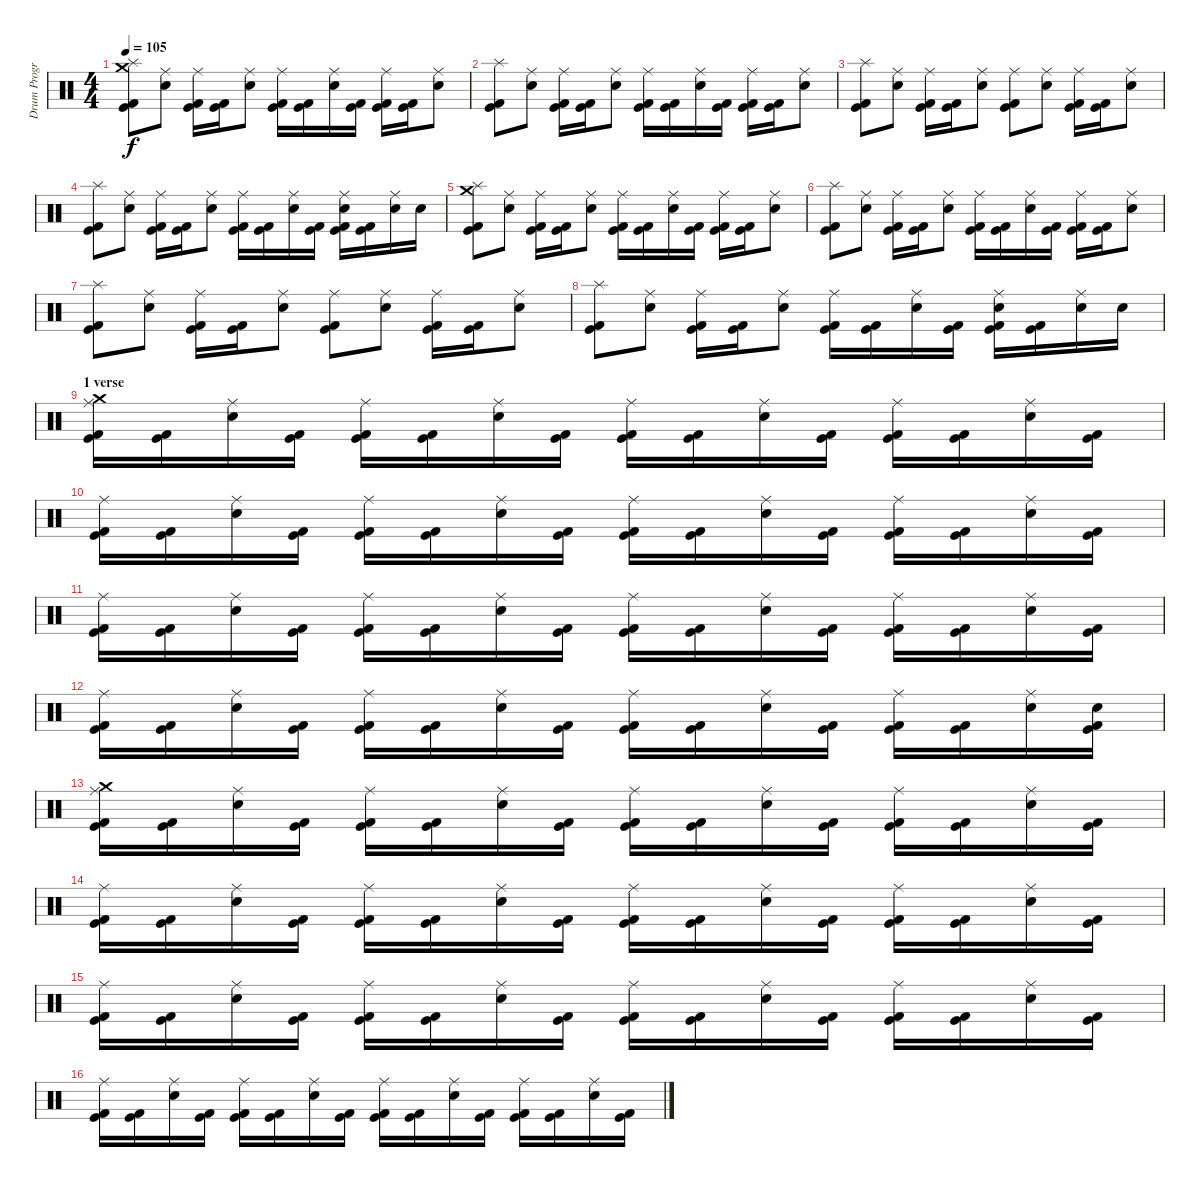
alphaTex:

\track ("Drum Program - BG" "Drum Progr") {instrument percussion}
\staff {score}
\articulation defaults
\ts (4 4)
\tempo 105
\clef neutral
\ks c
("Kick (hit)" "Kick (hit) 2" "Splash (hit)" "Crash medium (hit)").8{dy f} ("Snare (hit) 2" "Ride (middle)").8 ("Kick (hit)" "Kick (hit) 2" "Ride (middle)").16 ("Kick (hit)" "Kick (hit) 2").16 ("Snare (hit) 2" "Ride (middle)").8 ("Kick (hit)" "Kick (hit) 2" "Ride (middle)").16 ("Kick (hit)" "Kick (hit) 2").16 ("Snare (hit) 2" "Ride (middle)").16 ("Kick (hit)" "Kick (hit) 2").16 ("Kick (hit)" "Kick (hit) 2" "Ride (middle)").16 ("Kick (hit)" "Kick (hit) 2").16 ("Snare (hit) 2" "Ride (middle)").8 |
("Kick (hit)" "Kick (hit) 2" "Splash (hit)").8 ("Snare (hit) 2" "Ride (middle)").8 ("Kick (hit)" "Kick (hit) 2" "Ride (middle)").16 ("Kick (hit)" "Kick (hit) 2").16 ("Snare (hit) 2" "Ride (middle)").8 ("Kick (hit)" "Kick (hit) 2" "Ride (middle)").16 ("Kick (hit)" "Kick (hit) 2").16 ("Snare (hit) 2" "Ride (middle)").16 ("Kick (hit)" "Kick (hit) 2").16 ("Kick (hit)" "Kick (hit) 2" "Ride (middle)").16 ("Kick (hit)" "Kick (hit) 2").16 ("Snare (hit) 2" "Ride (middle)").8 |
("Kick (hit)" "Kick (hit) 2" "Splash (hit)").8 ("Snare (hit) 2" "Ride (middle)").8 ("Kick (hit)" "Kick (hit) 2" "Ride (middle)").16 ("Kick (hit)" "Kick (hit) 2").16 ("Snare (hit) 2" "Ride (middle)").8 ("Kick (hit)" "Kick (hit) 2" "Ride (middle)").8 ("Snare (hit) 2" "Ride (middle)").8 ("Kick (hit)" "Kick (hit) 2" "Ride (middle)").16 ("Kick (hit)" "Kick (hit) 2").16 ("Snare (hit) 2" "Ride (middle)").8 |
("Kick (hit)" "Kick (hit) 2" "Splash (hit)").8 ("Snare (hit) 2" "Ride (middle)").8 ("Kick (hit)" "Kick (hit) 2" "Ride (middle)").16 ("Kick (hit)" "Kick (hit) 2").16 ("Snare (hit) 2" "Ride (middle)").8 ("Kick (hit)" "Kick (hit) 2" "Ride (middle)").16 ("Kick (hit)" "Kick (hit) 2").16 ("Electric Snare (hit)" "Ride (middle)").16 ("Kick (hit)" "Kick (hit) 2").16 ("Kick (hit)" "Kick (hit) 2" "Electric Snare (hit)" "Ride (middle)").16 ("Kick (hit)" "Kick (hit) 2").16 ("Electric Snare (hit)" "Ride (middle)").16 "Electric Snare (hit)".16 |
("Kick (hit)" "Kick (hit) 2" "Splash (hit)" "Crash medium (hit)").8 ("Snare (hit) 2" "Ride (middle)").8 ("Kick (hit)" "Kick (hit) 2" "Ride (middle)").16 ("Kick (hit)" "Kick (hit) 2").16 ("Snare (hit) 2" "Ride (middle)").8 ("Kick (hit)" "Kick (hit) 2" "Ride (middle)").16 ("Kick (hit)" "Kick (hit) 2").16 ("Snare (hit) 2" "Ride (middle)").16 ("Kick (hit)" "Kick (hit) 2").16 ("Kick (hit)" "Kick (hit) 2" "Ride (middle)").16 ("Kick (hit)" "Kick (hit) 2").16 ("Snare (hit) 2" "Ride (middle)").8 |
("Kick (hit)" "Kick (hit) 2" "Splash (hit)").8 ("Snare (hit) 2" "Ride (middle)").8 ("Kick (hit)" "Kick (hit) 2" "Ride (middle)").16 ("Kick (hit)" "Kick (hit) 2").16 ("Snare (hit) 2" "Ride (middle)").8 ("Kick (hit)" "Kick (hit) 2" "Ride (middle)").16 ("Kick (hit)" "Kick (hit) 2").16 ("Snare (hit) 2" "Ride (middle)").16 ("Kick (hit)" "Kick (hit) 2").16 ("Kick (hit)" "Kick (hit) 2" "Ride (middle)").16 ("Kick (hit)" "Kick (hit) 2").16 ("Snare (hit) 2" "Ride (middle)").8 |
("Kick (hit)" "Kick (hit) 2" "Splash (hit)").8 ("Snare (hit) 2" "Ride (middle)").8 ("Kick (hit)" "Kick (hit) 2" "Ride (middle)").16 ("Kick (hit)" "Kick (hit) 2").16 ("Snare (hit) 2" "Ride (middle)").8 ("Kick (hit)" "Kick (hit) 2" "Ride (middle)").8 ("Snare (hit) 2" "Ride (middle)").8 ("Kick (hit)" "Kick (hit) 2" "Ride (middle)").16 ("Kick (hit)" "Kick (hit) 2").16 ("Snare (hit) 2" "Ride (middle)").8 |
("Kick (hit)" "Kick (hit) 2" "Splash (hit)").8 ("Snare (hit) 2" "Ride (middle)").8 ("Kick (hit)" "Kick (hit) 2" "Ride (middle)").16 ("Kick (hit)" "Kick (hit) 2").16 ("Snare (hit) 2" "Ride (middle)").8 ("Kick (hit)" "Kick (hit) 2" "Ride (middle)").16 ("Kick (hit)" "Kick (hit) 2").16 ("Electric Snare (hit)" "Ride (middle)").16 ("Kick (hit)" "Kick (hit) 2").16 ("Kick (hit)" "Kick (hit) 2" "Electric Snare (hit)" "Ride (middle)").16 ("Kick (hit)" "Kick (hit) 2").16 ("Electric Snare (hit)" "Ride (middle)").16 "Electric Snare (hit)".16 |
\section ("" "1 verse")
("Kick (hit)" "Kick (hit) 2" "Crash medium (hit)" "Ride (middle)").16 ("Kick (hit)" "Kick (hit) 2").16 ("Snare (hit) 2" "Ride (middle)").16 ("Kick (hit)" "Kick (hit) 2").16 ("Kick (hit)" "Kick (hit) 2" "Ride (middle)").16 ("Kick (hit)" "Kick (hit) 2").16 ("Snare (hit) 2" "Ride (middle)").16 ("Kick (hit)" "Kick (hit) 2").16 ("Kick (hit)" "Kick (hit) 2" "Ride (middle)").16 ("Kick (hit)" "Kick (hit) 2").16 ("Snare (hit) 2" "Ride (middle)").16 ("Kick (hit)" "Kick (hit) 2").16 ("Kick (hit)" "Kick (hit) 2" "Ride (middle)").16 ("Kick (hit)" "Kick (hit) 2").16 ("Snare (hit) 2" "Ride (middle)").16 ("Kick (hit)" "Kick (hit) 2").16 |
("Kick (hit)" "Kick (hit) 2" "Ride (middle)").16 ("Kick (hit)" "Kick (hit) 2").16 ("Snare (hit) 2" "Ride (middle)").16 ("Kick (hit)" "Kick (hit) 2").16 ("Kick (hit)" "Kick (hit) 2" "Ride (middle)").16 ("Kick (hit)" "Kick (hit) 2").16 ("Snare (hit) 2" "Ride (middle)").16 ("Kick (hit)" "Kick (hit) 2").16 ("Kick (hit)" "Kick (hit) 2" "Ride (middle)").16 ("Kick (hit)" "Kick (hit) 2").16 ("Snare (hit) 2" "Ride (middle)").16 ("Kick (hit)" "Kick (hit) 2").16 ("Kick (hit)" "Kick (hit) 2" "Ride (middle)").16 ("Kick (hit)" "Kick (hit) 2").16 ("Snare (hit) 2" "Ride (middle)").16 ("Kick (hit)" "Kick (hit) 2").16 |
("Kick (hit)" "Kick (hit) 2" "Ride (middle)").16 ("Kick (hit)" "Kick (hit) 2").16 ("Snare (hit) 2" "Ride (middle)").16 ("Kick (hit)" "Kick (hit) 2").16 ("Kick (hit)" "Kick (hit) 2" "Ride (middle)").16 ("Kick (hit)" "Kick (hit) 2").16 ("Snare (hit) 2" "Ride (middle)").16 ("Kick (hit)" "Kick (hit) 2").16 ("Kick (hit)" "Kick (hit) 2" "Ride (middle)").16 ("Kick (hit)" "Kick (hit) 2").16 ("Snare (hit) 2" "Ride (middle)").16 ("Kick (hit)" "Kick (hit) 2").16 ("Kick (hit)" "Kick (hit) 2" "Ride (middle)").16 ("Kick (hit)" "Kick (hit) 2").16 ("Snare (hit) 2" "Ride (middle)").16 ("Kick (hit)" "Kick (hit) 2").16 |
("Kick (hit)" "Kick (hit) 2" "Ride (middle)").16 ("Kick (hit)" "Kick (hit) 2").16 ("Snare (hit) 2" "Ride (middle)").16 ("Kick (hit)" "Kick (hit) 2").16 ("Kick (hit)" "Kick (hit) 2" "Ride (middle)").16 ("Kick (hit)" "Kick (hit) 2").16 ("Snare (hit) 2" "Ride (middle)").16 ("Kick (hit)" "Kick (hit) 2").16 ("Kick (hit)" "Kick (hit) 2" "Ride (middle)").16 ("Kick (hit)" "Kick (hit) 2").16 ("Snare (hit) 2" "Ride (middle)").16 ("Kick (hit)" "Kick (hit) 2").16 ("Kick (hit)" "Kick (hit) 2" "Ride (middle)").16 ("Kick (hit)" "Kick (hit) 2").16 ("Snare (hit) 2" "Ride (middle)").16 ("Kick (hit)" "Kick (hit) 2" "Snare (hit) 2").16 |
("Kick (hit)" "Kick (hit) 2" "Crash medium (hit)" "Ride (middle)").16 ("Kick (hit)" "Kick (hit) 2").16 ("Snare (hit) 2" "Ride (middle)").16 ("Kick (hit)" "Kick (hit) 2").16 ("Kick (hit)" "Kick (hit) 2" "Ride (middle)").16 ("Kick (hit)" "Kick (hit) 2").16 ("Snare (hit) 2" "Ride (middle)").16 ("Kick (hit)" "Kick (hit) 2").16 ("Kick (hit)" "Kick (hit) 2" "Ride (middle)").16 ("Kick (hit)" "Kick (hit) 2").16 ("Snare (hit) 2" "Ride (middle)").16 ("Kick (hit)" "Kick (hit) 2").16 ("Kick (hit)" "Kick (hit) 2" "Ride (middle)").16 ("Kick (hit)" "Kick (hit) 2").16 ("Snare (hit) 2" "Ride (middle)").16 ("Kick (hit)" "Kick (hit) 2").16 |
("Kick (hit)" "Kick (hit) 2" "Ride (middle)").16 ("Kick (hit)" "Kick (hit) 2").16 ("Snare (hit) 2" "Ride (middle)").16 ("Kick (hit)" "Kick (hit) 2").16 ("Kick (hit)" "Kick (hit) 2" "Ride (middle)").16 ("Kick (hit)" "Kick (hit) 2").16 ("Snare (hit) 2" "Ride (middle)").16 ("Kick (hit)" "Kick (hit) 2").16 ("Kick (hit)" "Kick (hit) 2" "Ride (middle)").16 ("Kick (hit)" "Kick (hit) 2").16 ("Snare (hit) 2" "Ride (middle)").16 ("Kick (hit)" "Kick (hit) 2").16 ("Kick (hit)" "Kick (hit) 2" "Ride (middle)").16 ("Kick (hit)" "Kick (hit) 2").16 ("Snare (hit) 2" "Ride (middle)").16 ("Kick (hit)" "Kick (hit) 2").16 |
("Kick (hit)" "Kick (hit) 2" "Ride (middle)").16 ("Kick (hit)" "Kick (hit) 2").16 ("Snare (hit) 2" "Ride (middle)").16 ("Kick (hit)" "Kick (hit) 2").16 ("Kick (hit)" "Kick (hit) 2" "Ride (middle)").16 ("Kick (hit)" "Kick (hit) 2").16 ("Snare (hit) 2" "Ride (middle)").16 ("Kick (hit)" "Kick (hit) 2").16 ("Kick (hit)" "Kick (hit) 2" "Ride (middle)").16 ("Kick (hit)" "Kick (hit) 2").16 ("Snare (hit) 2" "Ride (middle)").16 ("Kick (hit)" "Kick (hit) 2").16 ("Kick (hit)" "Kick (hit) 2" "Ride (middle)").16 ("Kick (hit)" "Kick (hit) 2").16 ("Snare (hit) 2" "Ride (middle)").16 ("Kick (hit)" "Kick (hit) 2").16 |
("Kick (hit)" "Kick (hit) 2" "Ride (middle)").16 ("Kick (hit)" "Kick (hit) 2").16 ("Snare (hit) 2" "Ride (middle)").16 ("Kick (hit)" "Kick (hit) 2").16 ("Kick (hit)" "Kick (hit) 2" "Ride (middle)").16 ("Kick (hit)" "Kick (hit) 2").16 ("Snare (hit) 2" "Ride (middle)").16 ("Kick (hit)" "Kick (hit) 2").16 ("Kick (hit)" "Kick (hit) 2" "Ride (middle)").16 ("Kick (hit)" "Kick (hit) 2").16 ("Snare (hit) 2" "Ride (middle)").16 ("Kick (hit)" "Kick (hit) 2").16 ("Kick (hit)" "Kick (hit) 2" "Ride (middle)").16 ("Kick (hit)" "Kick (hit) 2").16 ("Snare (hit) 2" "Ride (middle)").16 ("Kick (hit)" "Kick (hit) 2").16
